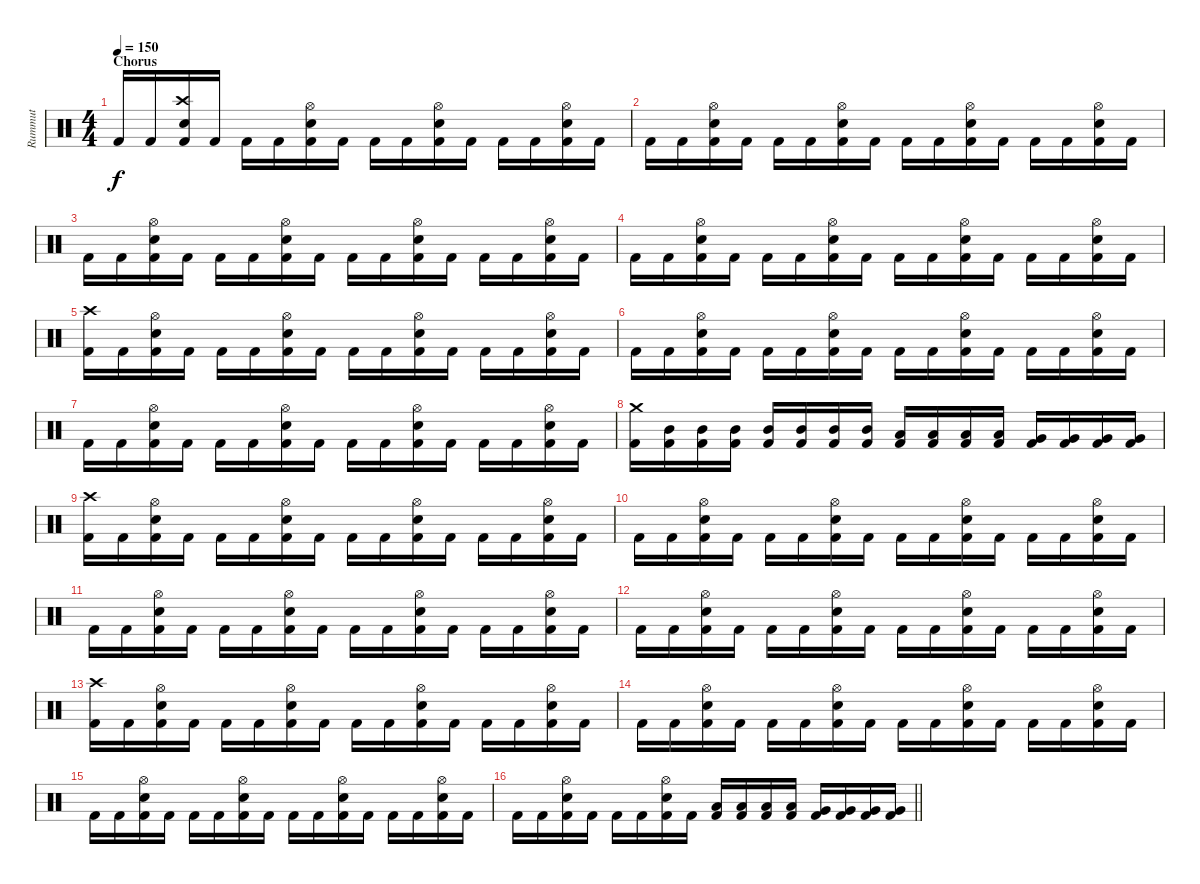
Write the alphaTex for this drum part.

\track ("Rummut" "Rummut") {instrument percussion}
\staff {score}
\articulation defaults
\ts (4 4)
\section ("" "Chorus")
\tempo 150
\clef neutral
\ks c "Kick (hit) 2".16{dy f} "Kick (hit) 2".16
("Crash high (hit)" "Snare (hit) 2" "Kick (hit) 2").16 "Kick (hit) 2".16 "Kick (hit) 2".16 "Kick (hit) 2".16 ("Hi-Hat (open)" "Snare (hit) 2" "Kick (hit) 2").16 "Kick (hit) 2".16 "Kick (hit) 2".16 "Kick (hit) 2".16 ("Hi-Hat (open)" "Snare (hit) 2" "Kick (hit) 2").16 "Kick (hit) 2".16 "Kick (hit) 2".16 "Kick (hit) 2".16 ("Hi-Hat (open)" "Snare (hit) 2" "Kick (hit) 2").16 "Kick (hit) 2".16 |
"Kick (hit) 2".16 "Kick (hit) 2".16 ("Hi-Hat (open)" "Snare (hit) 2" "Kick (hit) 2").16 "Kick (hit) 2".16 "Kick (hit) 2".16 "Kick (hit) 2".16 ("Hi-Hat (open)" "Snare (hit) 2" "Kick (hit) 2").16 "Kick (hit) 2".16 "Kick (hit) 2".16 "Kick (hit) 2".16 ("Hi-Hat (open)" "Snare (hit) 2" "Kick (hit) 2").16 "Kick (hit) 2".16 "Kick (hit) 2".16 "Kick (hit) 2".16 ("Hi-Hat (open)" "Snare (hit) 2" "Kick (hit) 2").16 "Kick (hit) 2".16 |
"Kick (hit) 2".16 "Kick (hit) 2".16 ("Hi-Hat (open)" "Snare (hit) 2" "Kick (hit) 2").16 "Kick (hit) 2".16 "Kick (hit) 2".16 "Kick (hit) 2".16 ("Hi-Hat (open)" "Snare (hit) 2" "Kick (hit) 2").16 "Kick (hit) 2".16 "Kick (hit) 2".16 "Kick (hit) 2".16 ("Hi-Hat (open)" "Snare (hit) 2" "Kick (hit) 2").16 "Kick (hit) 2".16 "Kick (hit) 2".16 "Kick (hit) 2".16 ("Hi-Hat (open)" "Snare (hit) 2" "Kick (hit) 2").16 "Kick (hit) 2".16 |
"Kick (hit) 2".16 "Kick (hit) 2".16 ("Hi-Hat (open)" "Snare (hit) 2" "Kick (hit) 2").16 "Kick (hit) 2".16 "Kick (hit) 2".16 "Kick (hit) 2".16 ("Hi-Hat (open)" "Snare (hit) 2" "Kick (hit) 2").16 "Kick (hit) 2".16 "Kick (hit) 2".16 "Kick (hit) 2".16 ("Hi-Hat (open)" "Snare (hit) 2" "Kick (hit) 2").16 "Kick (hit) 2".16 "Kick (hit) 2".16 "Kick (hit) 2".16 ("Hi-Hat (open)" "Snare (hit) 2" "Kick (hit) 2").16 "Kick (hit) 2".16 |
("Crash high (hit)" "Kick (hit) 2").16 "Kick (hit) 2".16 ("Hi-Hat (open)" "Snare (hit) 2" "Kick (hit) 2").16 "Kick (hit) 2".16 "Kick (hit) 2".16 "Kick (hit) 2".16 ("Hi-Hat (open)" "Snare (hit) 2" "Kick (hit) 2").16 "Kick (hit) 2".16 "Kick (hit) 2".16 "Kick (hit) 2".16 ("Hi-Hat (open)" "Snare (hit) 2" "Kick (hit) 2").16 "Kick (hit) 2".16 "Kick (hit) 2".16 "Kick (hit) 2".16 ("Hi-Hat (open)" "Snare (hit) 2" "Kick (hit) 2").16 "Kick (hit) 2".16 |
"Kick (hit) 2".16 "Kick (hit) 2".16 ("Hi-Hat (open)" "Snare (hit) 2" "Kick (hit) 2").16 "Kick (hit) 2".16 "Kick (hit) 2".16 "Kick (hit) 2".16 ("Hi-Hat (open)" "Snare (hit) 2" "Kick (hit) 2").16 "Kick (hit) 2".16 "Kick (hit) 2".16 "Kick (hit) 2".16 ("Hi-Hat (open)" "Snare (hit) 2" "Kick (hit) 2").16 "Kick (hit) 2".16 "Kick (hit) 2".16 "Kick (hit) 2".16 ("Hi-Hat (open)" "Snare (hit) 2" "Kick (hit) 2").16 "Kick (hit) 2".16 |
"Kick (hit) 2".16 "Kick (hit) 2".16 ("Hi-Hat (open)" "Snare (hit) 2" "Kick (hit) 2").16 "Kick (hit) 2".16 "Kick (hit) 2".16 "Kick (hit) 2".16 ("Hi-Hat (open)" "Snare (hit) 2" "Kick (hit) 2").16 "Kick (hit) 2".16 "Kick (hit) 2".16 "Kick (hit) 2".16 ("Hi-Hat (open)" "Snare (hit) 2" "Kick (hit) 2").16 "Kick (hit) 2".16 "Kick (hit) 2".16 "Kick (hit) 2".16 ("Hi-Hat (open)" "Snare (hit) 2" "Kick (hit) 2").16 "Kick (hit) 2".16 |
("Crash medium (hit)" "Kick (hit) 2").16 ("Mid Tom (hit)" "Kick (hit) 2").16 ("Mid Tom (hit)" "Kick (hit) 2").16 ("Mid Tom (hit)" "Kick (hit) 2").16 ("Mid Tom (hit)" "Kick (hit) 2").16 ("Mid Tom (hit)" "Kick (hit) 2").16 ("Mid Tom (hit)" "Kick (hit) 2").16 ("Mid Tom (hit)" "Kick (hit) 2").16 ("Low Tom (hit)" "Kick (hit) 2").16 ("Low Tom (hit)" "Kick (hit) 2").16 ("Low Tom (hit)" "Kick (hit) 2").16 ("Low Tom (hit)" "Kick (hit) 2").16 ("Very Low Tom (hit)" "Kick (hit) 2").16 ("Very Low Tom (hit)" "Kick (hit) 2").16 ("Very Low Tom (hit)" "Kick (hit) 2").16 ("Very Low Tom (hit)" "Kick (hit) 2").16 |
("Crash high (hit)" "Kick (hit) 2").16 "Kick (hit) 2".16 ("Hi-Hat (open)" "Snare (hit) 2" "Kick (hit) 2").16 "Kick (hit) 2".16 "Kick (hit) 2".16 "Kick (hit) 2".16 ("Hi-Hat (open)" "Snare (hit) 2" "Kick (hit) 2").16 "Kick (hit) 2".16 "Kick (hit) 2".16 "Kick (hit) 2".16 ("Hi-Hat (open)" "Snare (hit) 2" "Kick (hit) 2").16 "Kick (hit) 2".16 "Kick (hit) 2".16 "Kick (hit) 2".16 ("Hi-Hat (open)" "Snare (hit) 2" "Kick (hit) 2").16 "Kick (hit) 2".16 |
"Kick (hit) 2".16 "Kick (hit) 2".16 ("Hi-Hat (open)" "Snare (hit) 2" "Kick (hit) 2").16 "Kick (hit) 2".16 "Kick (hit) 2".16 "Kick (hit) 2".16 ("Hi-Hat (open)" "Snare (hit) 2" "Kick (hit) 2").16 "Kick (hit) 2".16 "Kick (hit) 2".16 "Kick (hit) 2".16 ("Hi-Hat (open)" "Snare (hit) 2" "Kick (hit) 2").16 "Kick (hit) 2".16 "Kick (hit) 2".16 "Kick (hit) 2".16 ("Hi-Hat (open)" "Snare (hit) 2" "Kick (hit) 2").16 "Kick (hit) 2".16 |
"Kick (hit) 2".16 "Kick (hit) 2".16 ("Hi-Hat (open)" "Snare (hit) 2" "Kick (hit) 2").16 "Kick (hit) 2".16 "Kick (hit) 2".16 "Kick (hit) 2".16 ("Hi-Hat (open)" "Snare (hit) 2" "Kick (hit) 2").16 "Kick (hit) 2".16 "Kick (hit) 2".16 "Kick (hit) 2".16 ("Hi-Hat (open)" "Snare (hit) 2" "Kick (hit) 2").16 "Kick (hit) 2".16 "Kick (hit) 2".16 "Kick (hit) 2".16 ("Hi-Hat (open)" "Snare (hit) 2" "Kick (hit) 2").16 "Kick (hit) 2".16 |
"Kick (hit) 2".16 "Kick (hit) 2".16 ("Hi-Hat (open)" "Snare (hit) 2" "Kick (hit) 2").16 "Kick (hit) 2".16 "Kick (hit) 2".16 "Kick (hit) 2".16 ("Hi-Hat (open)" "Snare (hit) 2" "Kick (hit) 2").16 "Kick (hit) 2".16 "Kick (hit) 2".16 "Kick (hit) 2".16 ("Hi-Hat (open)" "Snare (hit) 2" "Kick (hit) 2").16 "Kick (hit) 2".16 "Kick (hit) 2".16 "Kick (hit) 2".16 ("Hi-Hat (open)" "Snare (hit) 2" "Kick (hit) 2").16 "Kick (hit) 2".16 |
("Crash high (hit)" "Kick (hit) 2").16 "Kick (hit) 2".16 ("Hi-Hat (open)" "Snare (hit) 2" "Kick (hit) 2").16 "Kick (hit) 2".16 "Kick (hit) 2".16 "Kick (hit) 2".16 ("Hi-Hat (open)" "Snare (hit) 2" "Kick (hit) 2").16 "Kick (hit) 2".16 "Kick (hit) 2".16 "Kick (hit) 2".16 ("Hi-Hat (open)" "Snare (hit) 2" "Kick (hit) 2").16 "Kick (hit) 2".16 "Kick (hit) 2".16 "Kick (hit) 2".16 ("Hi-Hat (open)" "Snare (hit) 2" "Kick (hit) 2").16 "Kick (hit) 2".16 |
"Kick (hit) 2".16 "Kick (hit) 2".16 ("Hi-Hat (open)" "Snare (hit) 2" "Kick (hit) 2").16 "Kick (hit) 2".16 "Kick (hit) 2".16 "Kick (hit) 2".16 ("Hi-Hat (open)" "Snare (hit) 2" "Kick (hit) 2").16 "Kick (hit) 2".16 "Kick (hit) 2".16 "Kick (hit) 2".16 ("Hi-Hat (open)" "Snare (hit) 2" "Kick (hit) 2").16 "Kick (hit) 2".16 "Kick (hit) 2".16 "Kick (hit) 2".16 ("Hi-Hat (open)" "Snare (hit) 2" "Kick (hit) 2").16 "Kick (hit) 2".16 |
"Kick (hit) 2".16 "Kick (hit) 2".16 ("Hi-Hat (open)" "Snare (hit) 2" "Kick (hit) 2").16 "Kick (hit) 2".16 "Kick (hit) 2".16 "Kick (hit) 2".16 ("Hi-Hat (open)" "Snare (hit) 2" "Kick (hit) 2").16 "Kick (hit) 2".16 "Kick (hit) 2".16 "Kick (hit) 2".16 ("Hi-Hat (open)" "Snare (hit) 2" "Kick (hit) 2").16 "Kick (hit) 2".16 "Kick (hit) 2".16 "Kick (hit) 2".16 ("Hi-Hat (open)" "Snare (hit) 2" "Kick (hit) 2").16 "Kick (hit) 2".16 |
\barLineRight lightlight "Kick (hit) 2".16 "Kick (hit) 2".16
("Hi-Hat (open)" "Snare (hit) 2" "Kick (hit) 2").16 "Kick (hit) 2".16 "Kick (hit) 2".16 "Kick (hit) 2".16 ("Hi-Hat (open)" "Snare (hit) 2" "Kick (hit) 2").16 "Kick (hit) 2".16 ("Low Tom (hit)" "Kick (hit) 2").16 ("Low Tom (hit)" "Kick (hit) 2").16 ("Low Tom (hit)" "Kick (hit) 2").16 ("Low Tom (hit)" "Kick (hit) 2").16 ("Very Low Tom (hit)" "Kick (hit) 2").16 ("Very Low Tom (hit)" "Kick (hit) 2").16 ("Very Low Tom (hit)" "Kick (hit) 2").16 ("Very Low Tom (hit)" "Kick (hit) 2").16
